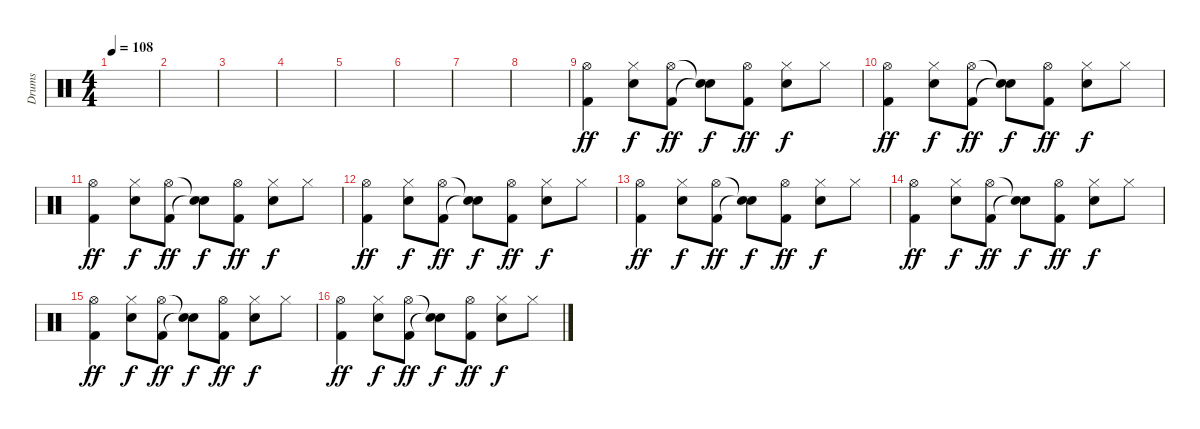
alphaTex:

\track ("Drums" "Drums") {instrument percussion}
\staff {score}
\articulation defaults
\ts (4 4)
\tempo 108
\clef neutral
\ks c
|
|
|
|
|
|
|
|
("Hi-Hat (open)" "Kick (hit) 2").4{dy ff} ("Hi-Hat (closed)" "Electric Snare (hit)").8{dy f} ("Hi-Hat (open)" "Kick (hit) 2").8{dy ff} ("Snare (hit)"{t} "Snare (hit)"{t}).8{dy f} ("Hi-Hat (open)" "Kick (hit) 2").8{dy ff} ("Hi-Hat (closed)" "Electric Snare (hit)").8{dy f} "Hi-Hat (closed)".8 |
("Hi-Hat (open)" "Kick (hit) 2").4{dy ff} ("Hi-Hat (closed)" "Electric Snare (hit)").8{dy f} ("Hi-Hat (open)" "Kick (hit) 2").8{dy ff} ("Snare (hit)"{t} "Snare (hit)"{t}).8{dy f} ("Hi-Hat (open)" "Kick (hit) 2").8{dy ff} ("Hi-Hat (closed)" "Electric Snare (hit)").8{dy f} "Hi-Hat (closed)".8 |
("Hi-Hat (open)" "Kick (hit) 2").4{dy ff} ("Hi-Hat (closed)" "Electric Snare (hit)").8{dy f} ("Hi-Hat (open)" "Kick (hit) 2").8{dy ff} ("Snare (hit)"{t} "Snare (hit)"{t}).8{dy f} ("Hi-Hat (open)" "Kick (hit) 2").8{dy ff} ("Hi-Hat (closed)" "Electric Snare (hit)").8{dy f} "Hi-Hat (closed)".8 |
("Hi-Hat (open)" "Kick (hit) 2").4{dy ff} ("Hi-Hat (closed)" "Electric Snare (hit)").8{dy f} ("Hi-Hat (open)" "Kick (hit) 2").8{dy ff} ("Snare (hit)"{t} "Snare (hit)"{t}).8{dy f} ("Hi-Hat (open)" "Kick (hit) 2").8{dy ff} ("Hi-Hat (closed)" "Electric Snare (hit)").8{dy f} "Hi-Hat (closed)".8 |
("Hi-Hat (open)" "Kick (hit) 2").4{dy ff} ("Hi-Hat (closed)" "Electric Snare (hit)").8{dy f} ("Hi-Hat (open)" "Kick (hit) 2").8{dy ff} ("Snare (hit)"{t} "Snare (hit)"{t}).8{dy f} ("Hi-Hat (open)" "Kick (hit) 2").8{dy ff} ("Hi-Hat (closed)" "Electric Snare (hit)").8{dy f} "Hi-Hat (closed)".8 |
("Hi-Hat (open)" "Kick (hit) 2").4{dy ff} ("Hi-Hat (closed)" "Electric Snare (hit)").8{dy f} ("Hi-Hat (open)" "Kick (hit) 2").8{dy ff} ("Snare (hit)"{t} "Snare (hit)"{t}).8{dy f} ("Hi-Hat (open)" "Kick (hit) 2").8{dy ff} ("Hi-Hat (closed)" "Electric Snare (hit)").8{dy f} "Hi-Hat (closed)".8 |
("Hi-Hat (open)" "Kick (hit) 2").4{dy ff} ("Hi-Hat (closed)" "Electric Snare (hit)").8{dy f} ("Hi-Hat (open)" "Kick (hit) 2").8{dy ff} ("Snare (hit)"{t} "Snare (hit)"{t}).8{dy f} ("Hi-Hat (open)" "Kick (hit) 2").8{dy ff} ("Hi-Hat (closed)" "Electric Snare (hit)").8{dy f} "Hi-Hat (closed)".8 |
("Hi-Hat (open)" "Kick (hit) 2").4{dy ff} ("Hi-Hat (closed)" "Electric Snare (hit)").8{dy f} ("Hi-Hat (open)" "Kick (hit) 2").8{dy ff} ("Snare (hit)"{t} "Snare (hit)"{t}).8{dy f} ("Hi-Hat (open)" "Kick (hit) 2").8{dy ff} ("Hi-Hat (closed)" "Electric Snare (hit)").8{dy f} "Hi-Hat (closed)".8
